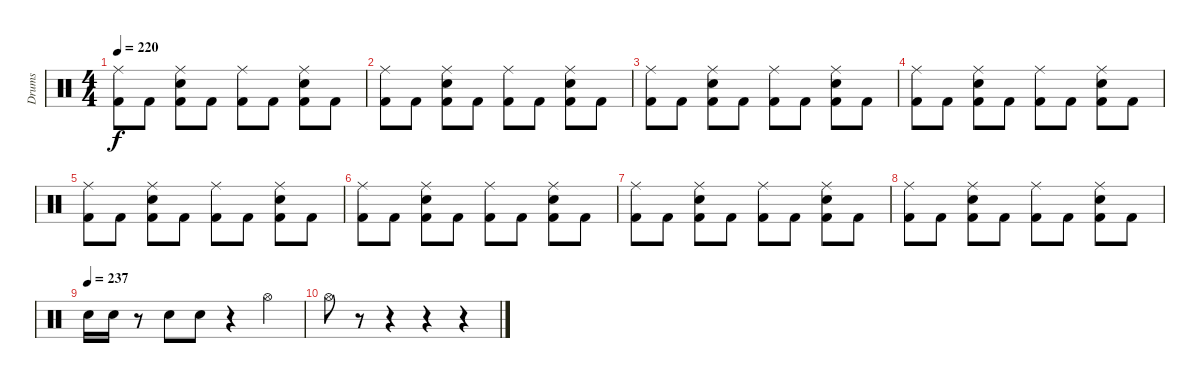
\track ("Drums" "Drums") {instrument percussion}
\staff {score}
\articulation defaults
\ts (4 4)
\tempo 220
\clef neutral
\ks c
("Ride (middle)" "Kick (hit) 2").8{dy f} "Kick (hit) 2".8 ("Electric Snare (hit)" "Ride (middle)" "Kick (hit) 2").8 "Kick (hit) 2".8 ("Ride (middle)" "Kick (hit) 2").8 "Kick (hit) 2".8 ("Electric Snare (hit)" "Ride (middle)" "Kick (hit) 2").8 "Kick (hit) 2".8 |
("Ride (middle)" "Kick (hit) 2").8 "Kick (hit) 2".8 ("Electric Snare (hit)" "Ride (middle)" "Kick (hit) 2").8 "Kick (hit) 2".8 ("Ride (middle)" "Kick (hit) 2").8 "Kick (hit) 2".8 ("Electric Snare (hit)" "Ride (middle)" "Kick (hit) 2").8 "Kick (hit) 2".8 |
("Ride (middle)" "Kick (hit) 2").8 "Kick (hit) 2".8 ("Electric Snare (hit)" "Ride (middle)" "Kick (hit) 2").8 "Kick (hit) 2".8 ("Ride (middle)" "Kick (hit) 2").8 "Kick (hit) 2".8 ("Electric Snare (hit)" "Ride (middle)" "Kick (hit) 2").8 "Kick (hit) 2".8 |
("Ride (middle)" "Kick (hit) 2").8 "Kick (hit) 2".8 ("Electric Snare (hit)" "Ride (middle)" "Kick (hit) 2").8 "Kick (hit) 2".8 ("Ride (middle)" "Kick (hit) 2").8 "Kick (hit) 2".8 ("Electric Snare (hit)" "Ride (middle)" "Kick (hit) 2").8 "Kick (hit) 2".8 |
("Ride (middle)" "Kick (hit) 2").8 "Kick (hit) 2".8 ("Electric Snare (hit)" "Ride (middle)" "Kick (hit) 2").8 "Kick (hit) 2".8 ("Ride (middle)" "Kick (hit) 2").8 "Kick (hit) 2".8 ("Electric Snare (hit)" "Ride (middle)" "Kick (hit) 2").8 "Kick (hit) 2".8 |
("Ride (middle)" "Kick (hit) 2").8 "Kick (hit) 2".8 ("Electric Snare (hit)" "Ride (middle)" "Kick (hit) 2").8 "Kick (hit) 2".8 ("Ride (middle)" "Kick (hit) 2").8 "Kick (hit) 2".8 ("Electric Snare (hit)" "Ride (middle)" "Kick (hit) 2").8 "Kick (hit) 2".8 |
("Ride (middle)" "Kick (hit) 2").8 "Kick (hit) 2".8 ("Electric Snare (hit)" "Ride (middle)" "Kick (hit) 2").8 "Kick (hit) 2".8 ("Ride (middle)" "Kick (hit) 2").8 "Kick (hit) 2".8 ("Electric Snare (hit)" "Ride (middle)" "Kick (hit) 2").8 "Kick (hit) 2".8 |
("Ride (middle)" "Kick (hit) 2").8 "Kick (hit) 2".8 ("Electric Snare (hit)" "Ride (middle)" "Kick (hit) 2").8 "Kick (hit) 2".8 ("Ride (middle)" "Kick (hit) 2").8 "Kick (hit) 2".8 ("Electric Snare (hit)" "Ride (middle)" "Kick (hit) 2").8 "Kick (hit) 2".8 |
\tempo (237)
"Electric Snare (hit)".16 "Electric Snare (hit)".16 r.8 "Electric Snare (hit)".8 "Electric Snare (hit)".8 r.4 "Hi-Hat (open)".4 |
"Hi-Hat (open)".8 r.8 r.4 r.4 r.4
